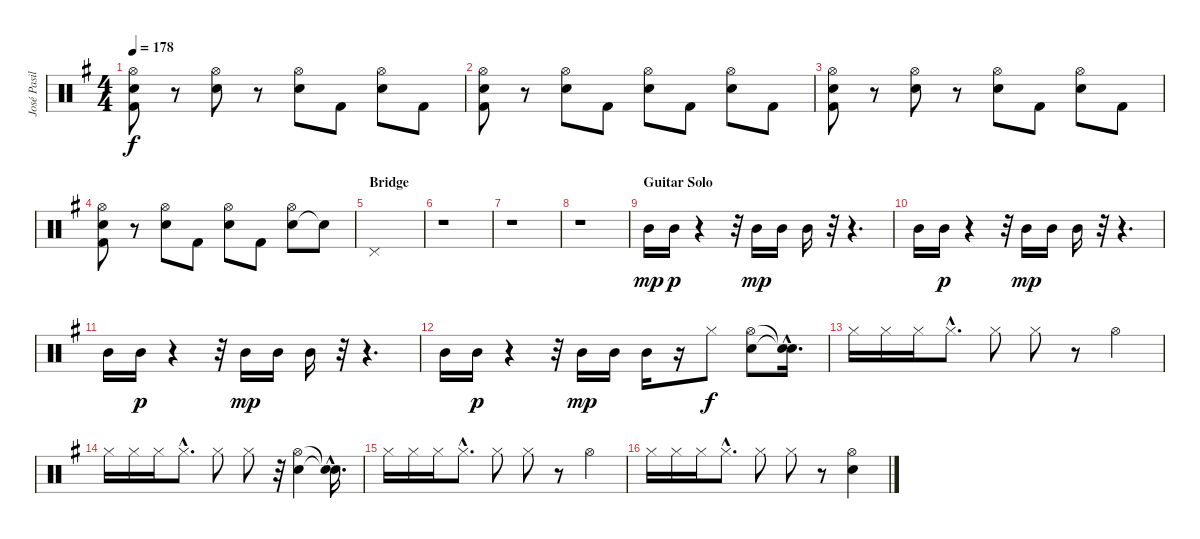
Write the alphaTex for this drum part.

\track ("José Pasillas [Drums]" "José Pasil") {instrument percussion}
\staff {score}
\articulation defaults
\ts (4 4)
\tempo 178
\clef neutral
\ks g
("Kick (hit) 2" "Electric Snare (hit)" "Hi-Hat (open)").8{dy f} r.8 ("Electric Snare (hit)" "Hi-Hat (open)").8 r.8 ("Electric Snare (hit)" "Hi-Hat (open)").8 "Kick (hit) 2".8 ("Electric Snare (hit)" "Hi-Hat (open)").8 "Kick (hit) 2".8 |
("Kick (hit) 2" "Electric Snare (hit)" "Hi-Hat (open)").8 r.8 ("Electric Snare (hit)" "Hi-Hat (open)").8 "Kick (hit) 2".8 ("Electric Snare (hit)" "Hi-Hat (open)").8 "Kick (hit) 2".8 ("Electric Snare (hit)" "Hi-Hat (open)").8 "Kick (hit) 2".8 |
("Kick (hit) 2" "Electric Snare (hit)" "Hi-Hat (open)").8 r.8 ("Electric Snare (hit)" "Hi-Hat (open)").8 r.8 ("Electric Snare (hit)" "Hi-Hat (open)").8 "Kick (hit) 2".8 ("Electric Snare (hit)" "Hi-Hat (open)").8 "Kick (hit) 2".8 |
("Kick (hit) 2" "Electric Snare (hit)" "Hi-Hat (open)").8 r.8 ("Electric Snare (hit)" "Hi-Hat (open)").8 "Kick (hit) 2".8 ("Electric Snare (hit)" "Hi-Hat (open)").8 "Kick (hit) 2".8 ("Electric Snare (hit)" "Hi-Hat (open)").8 "Snare (hit)"{t}.8 |
\section ("" "Bridge")
"Pedal Hi-Hat (hit)".1 |
r.1 |
r.1 |
r.1 |
\section ("" "Guitar Solo")
"Mid Tom (hit)".16{dy mp} "Mid Tom (hit)".16{dy p} r.4 r.32 "Mid Tom (hit)".16{dy mp} "Mid Tom (hit)".16 "Mid Tom (hit)".16 r.32 r.4{d} |
"Mid Tom (hit)".16 "Mid Tom (hit)".16{dy p} r.4 r.32 "Mid Tom (hit)".16{dy mp} "Mid Tom (hit)".16 "Mid Tom (hit)".16 r.32 r.4{d} |
"Mid Tom (hit)".16 "Mid Tom (hit)".16{dy p} r.4 r.32 "Mid Tom (hit)".16{dy mp} "Mid Tom (hit)".16 "Mid Tom (hit)".16 r.32 r.4{d} |
"Mid Tom (hit)".16 "Mid Tom (hit)".16{dy p} r.4 r.32 "Mid Tom (hit)".16{dy mp} "Mid Tom (hit)".16 "Mid Tom (hit)".16 r.16 "Hi-Hat (closed)".8{dy f} ("Electric Snare (hit)" "Hi-Hat (open)").8 ("Snare (hit)"{hac t} "Snare (hit)"{hac t}).16{d} |
"Hi-Hat (closed)".16 "Hi-Hat (closed)".16 "Hi-Hat (closed)".16 "Hi-Hat (closed)"{hac}.8{d} "Hi-Hat (closed)".8 "Hi-Hat (closed)".8 r.8 "Hi-Hat (open)".4 |
"Hi-Hat (closed)".16 "Hi-Hat (closed)".16 "Hi-Hat (closed)".16 "Hi-Hat (closed)"{hac}.8{d} "Hi-Hat (closed)".8 "Hi-Hat (closed)".8 r.32 ("Electric Snare (hit)" "Hi-Hat (open)").4 ("Snare (hit)"{hac t} "Snare (hit)"{hac t}).16{d} |
"Hi-Hat (closed)".16 "Hi-Hat (closed)".16 "Hi-Hat (closed)".16 "Hi-Hat (closed)"{hac}.8{d} "Hi-Hat (closed)".8 "Hi-Hat (closed)".8 r.8 "Hi-Hat (open)".4 |
"Hi-Hat (closed)".16 "Hi-Hat (closed)".16 "Hi-Hat (closed)".16 "Hi-Hat (closed)"{hac}.8{d} "Hi-Hat (closed)".8 "Hi-Hat (closed)".8 r.8 ("Electric Snare (hit)" "Hi-Hat (open)").4
